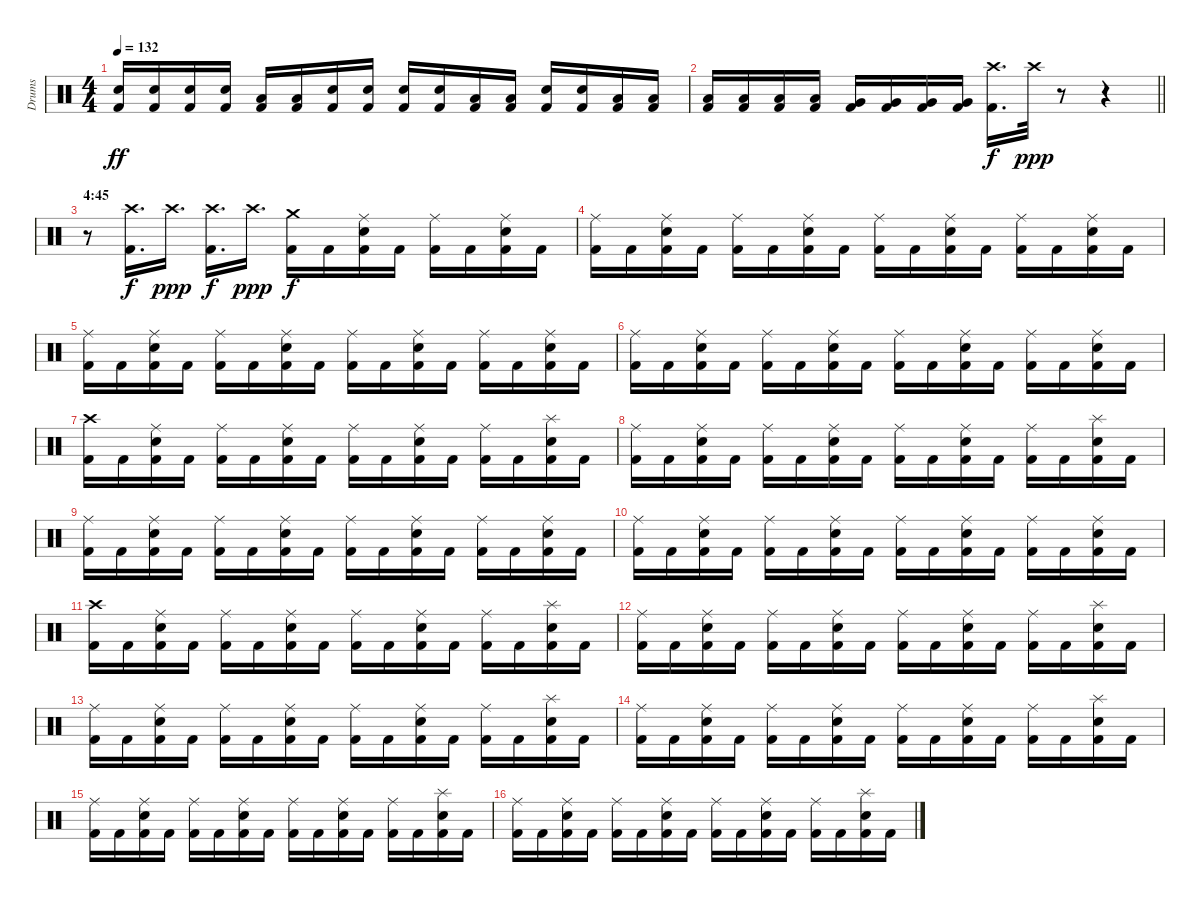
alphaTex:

\track ("Drums" "Drums") {instrument percussion}
\staff {score}
\articulation defaults
\ts (4 4)
\tempo 132
\clef neutral
\ks c
("Snare (hit) 2" "Kick (hit) 2").16{dy ff} ("Snare (hit) 2" "Kick (hit) 2").16 ("Snare (hit) 2" "Kick (hit) 2").16 ("Snare (hit) 2" "Kick (hit) 2").16 ("Low Tom (hit)" "Kick (hit) 2").16 ("Low Tom (hit)" "Kick (hit) 2").16 ("Snare (hit) 2" "Kick (hit) 2").16 ("Snare (hit) 2" "Kick (hit) 2").16 ("Snare (hit) 2" "Kick (hit) 2").16 ("Snare (hit) 2" "Kick (hit) 2").16 ("Low Tom (hit)" "Kick (hit) 2").16 ("Low Tom (hit)" "Kick (hit) 2").16 ("Snare (hit) 2" "Kick (hit) 2").16 ("Snare (hit) 2" "Kick (hit) 2").16 ("Low Tom (hit)" "Kick (hit) 2").16 ("Low Tom (hit)" "Kick (hit) 2").16 |
\barLineRight lightlight
("Low Tom (hit)" "Kick (hit) 2").16 ("Low Tom (hit)" "Kick (hit) 2").16 ("Low Tom (hit)" "Kick (hit) 2").16 ("Low Tom (hit)" "Kick (hit) 2").16 ("Very Low Tom (hit)" "Kick (hit) 2").16 ("Very Low Tom (hit)" "Kick (hit) 2").16 ("Very Low Tom (hit)" "Kick (hit) 2").16 ("Very Low Tom (hit)" "Kick (hit) 2").16 ("Crash high (hit)" "Kick (hit) 2").16{d dy f} "Crash high (hit)".32{dy ppp} r.8 r.4 |
\section ("" "4:45")
r.8 ("Crash high (hit)" "Kick (hit) 2").16{d dy f} "Crash high (hit)".16{d dy ppp} ("Crash high (hit)" "Kick (hit) 2").16{d dy f} "Crash high (hit)".16{d dy ppp} ("Crash medium (hit)" "Kick (hit) 2").16{dy f} "Kick (hit) 2".16 ("Ride (middle)" "Snare (hit) 2" "Kick (hit) 2").16 "Kick (hit) 2".16 ("Ride (middle)" "Kick (hit) 2").16 "Kick (hit) 2".16 ("Ride (middle)" "Snare (hit) 2" "Kick (hit) 2").16 "Kick (hit) 2".16 |
("Ride (middle)" "Kick (hit) 2").16 "Kick (hit) 2".16 ("Ride (middle)" "Snare (hit) 2" "Kick (hit) 2").16 "Kick (hit) 2".16 ("Ride (middle)" "Kick (hit) 2").16 "Kick (hit) 2".16 ("Ride (middle)" "Snare (hit) 2" "Kick (hit) 2").16 "Kick (hit) 2".16 ("Ride (middle)" "Kick (hit) 2").16 "Kick (hit) 2".16 ("Ride (middle)" "Snare (hit) 2" "Kick (hit) 2").16 "Kick (hit) 2".16 ("Ride (middle)" "Kick (hit) 2").16 "Kick (hit) 2".16 ("Ride (middle)" "Snare (hit) 2" "Kick (hit) 2").16 "Kick (hit) 2".16 |
("Ride (middle)" "Kick (hit) 2").16 "Kick (hit) 2".16 ("Ride (middle)" "Snare (hit) 2" "Kick (hit) 2").16 "Kick (hit) 2".16 ("Ride (middle)" "Kick (hit) 2").16 "Kick (hit) 2".16 ("Ride (middle)" "Snare (hit) 2" "Kick (hit) 2").16 "Kick (hit) 2".16 ("Ride (middle)" "Kick (hit) 2").16 "Kick (hit) 2".16 ("Ride (middle)" "Snare (hit) 2" "Kick (hit) 2").16 "Kick (hit) 2".16 ("Ride (middle)" "Kick (hit) 2").16 "Kick (hit) 2".16 ("Ride (middle)" "Snare (hit) 2" "Kick (hit) 2").16 "Kick (hit) 2".16 |
("Ride (middle)" "Kick (hit) 2").16 "Kick (hit) 2".16 ("Ride (middle)" "Snare (hit) 2" "Kick (hit) 2").16 "Kick (hit) 2".16 ("Ride (middle)" "Kick (hit) 2").16 "Kick (hit) 2".16 ("Ride (middle)" "Snare (hit) 2" "Kick (hit) 2").16 "Kick (hit) 2".16 ("Ride (middle)" "Kick (hit) 2").16 "Kick (hit) 2".16 ("Ride (middle)" "Snare (hit) 2" "Kick (hit) 2").16 "Kick (hit) 2".16 ("Ride (middle)" "Kick (hit) 2").16 "Kick (hit) 2".16 ("Ride (middle)" "Snare (hit) 2" "Kick (hit) 2").16 "Kick (hit) 2".16 |
("Crash high (hit)" "Kick (hit) 2").16 "Kick (hit) 2".16 ("Ride (middle)" "Snare (hit) 2" "Kick (hit) 2").16 "Kick (hit) 2".16 ("Ride (middle)" "Kick (hit) 2").16 "Kick (hit) 2".16 ("Ride (middle)" "Snare (hit) 2" "Kick (hit) 2").16 "Kick (hit) 2".16 ("Ride (middle)" "Kick (hit) 2").16 "Kick (hit) 2".16 ("Ride (middle)" "Snare (hit) 2" "Kick (hit) 2").16 "Kick (hit) 2".16 ("Ride (middle)" "Kick (hit) 2").16 "Kick (hit) 2".16 ("Splash (hit)" "Snare (hit) 2" "Kick (hit) 2").16 "Kick (hit) 2".16 |
("Ride (middle)" "Kick (hit) 2").16 "Kick (hit) 2".16 ("Ride (middle)" "Snare (hit) 2" "Kick (hit) 2").16 "Kick (hit) 2".16 ("Ride (middle)" "Kick (hit) 2").16 "Kick (hit) 2".16 ("Ride (middle)" "Snare (hit) 2" "Kick (hit) 2").16 "Kick (hit) 2".16 ("Ride (middle)" "Kick (hit) 2").16 "Kick (hit) 2".16 ("Ride (middle)" "Snare (hit) 2" "Kick (hit) 2").16 "Kick (hit) 2".16 ("Ride (middle)" "Kick (hit) 2").16 "Kick (hit) 2".16 ("Splash (hit)" "Snare (hit) 2" "Kick (hit) 2").16 "Kick (hit) 2".16 |
("Ride (middle)" "Kick (hit) 2").16 "Kick (hit) 2".16 ("Ride (middle)" "Snare (hit) 2" "Kick (hit) 2").16 "Kick (hit) 2".16 ("Ride (middle)" "Kick (hit) 2").16 "Kick (hit) 2".16 ("Ride (middle)" "Snare (hit) 2" "Kick (hit) 2").16 "Kick (hit) 2".16 ("Ride (middle)" "Kick (hit) 2").16 "Kick (hit) 2".16 ("Ride (middle)" "Snare (hit) 2" "Kick (hit) 2").16 "Kick (hit) 2".16 ("Ride (middle)" "Kick (hit) 2").16 "Kick (hit) 2".16 ("Ride (middle)" "Snare (hit) 2" "Kick (hit) 2").16 "Kick (hit) 2".16 |
("Ride (middle)" "Kick (hit) 2").16 "Kick (hit) 2".16 ("Ride (middle)" "Snare (hit) 2" "Kick (hit) 2").16 "Kick (hit) 2".16 ("Ride (middle)" "Kick (hit) 2").16 "Kick (hit) 2".16 ("Ride (middle)" "Snare (hit) 2" "Kick (hit) 2").16 "Kick (hit) 2".16 ("Ride (middle)" "Kick (hit) 2").16 "Kick (hit) 2".16 ("Ride (middle)" "Snare (hit) 2" "Kick (hit) 2").16 "Kick (hit) 2".16 ("Ride (middle)" "Kick (hit) 2").16 "Kick (hit) 2".16 ("Ride (middle)" "Snare (hit) 2" "Kick (hit) 2").16 "Kick (hit) 2".16 |
("Crash high (hit)" "Kick (hit) 2").16 "Kick (hit) 2".16 ("Ride (middle)" "Snare (hit) 2" "Kick (hit) 2").16 "Kick (hit) 2".16 ("Ride (middle)" "Kick (hit) 2").16 "Kick (hit) 2".16 ("Ride (middle)" "Snare (hit) 2" "Kick (hit) 2").16 "Kick (hit) 2".16 ("Ride (middle)" "Kick (hit) 2").16 "Kick (hit) 2".16 ("Ride (middle)" "Snare (hit) 2" "Kick (hit) 2").16 "Kick (hit) 2".16 ("Ride (middle)" "Kick (hit) 2").16 "Kick (hit) 2".16 ("Splash (hit)" "Snare (hit) 2" "Kick (hit) 2").16 "Kick (hit) 2".16 |
("Ride (middle)" "Kick (hit) 2").16 "Kick (hit) 2".16 ("Ride (middle)" "Snare (hit) 2" "Kick (hit) 2").16 "Kick (hit) 2".16 ("Ride (middle)" "Kick (hit) 2").16 "Kick (hit) 2".16 ("Ride (middle)" "Snare (hit) 2" "Kick (hit) 2").16 "Kick (hit) 2".16 ("Ride (middle)" "Kick (hit) 2").16 "Kick (hit) 2".16 ("Ride (middle)" "Snare (hit) 2" "Kick (hit) 2").16 "Kick (hit) 2".16 ("Ride (middle)" "Kick (hit) 2").16 "Kick (hit) 2".16 ("Splash (hit)" "Snare (hit) 2" "Kick (hit) 2").16 "Kick (hit) 2".16 |
("Ride (middle)" "Kick (hit) 2").16 "Kick (hit) 2".16 ("Ride (middle)" "Snare (hit) 2" "Kick (hit) 2").16 "Kick (hit) 2".16 ("Ride (middle)" "Kick (hit) 2").16 "Kick (hit) 2".16 ("Ride (middle)" "Snare (hit) 2" "Kick (hit) 2").16 "Kick (hit) 2".16 ("Ride (middle)" "Kick (hit) 2").16 "Kick (hit) 2".16 ("Ride (middle)" "Snare (hit) 2" "Kick (hit) 2").16 "Kick (hit) 2".16 ("Ride (middle)" "Kick (hit) 2").16 "Kick (hit) 2".16 ("Splash (hit)" "Snare (hit) 2" "Kick (hit) 2").16 "Kick (hit) 2".16 |
("Ride (middle)" "Kick (hit) 2").16 "Kick (hit) 2".16 ("Ride (middle)" "Snare (hit) 2" "Kick (hit) 2").16 "Kick (hit) 2".16 ("Ride (middle)" "Kick (hit) 2").16 "Kick (hit) 2".16 ("Ride (middle)" "Snare (hit) 2" "Kick (hit) 2").16 "Kick (hit) 2".16 ("Ride (middle)" "Kick (hit) 2").16 "Kick (hit) 2".16 ("Ride (middle)" "Snare (hit) 2" "Kick (hit) 2").16 "Kick (hit) 2".16 ("Ride (middle)" "Kick (hit) 2").16 "Kick (hit) 2".16 ("Splash (hit)" "Snare (hit) 2" "Kick (hit) 2").16 "Kick (hit) 2".16 |
("Ride (middle)" "Kick (hit) 2").16 "Kick (hit) 2".16 ("Ride (middle)" "Snare (hit) 2" "Kick (hit) 2").16 "Kick (hit) 2".16 ("Ride (middle)" "Kick (hit) 2").16 "Kick (hit) 2".16 ("Ride (middle)" "Snare (hit) 2" "Kick (hit) 2").16 "Kick (hit) 2".16 ("Ride (middle)" "Kick (hit) 2").16 "Kick (hit) 2".16 ("Ride (middle)" "Snare (hit) 2" "Kick (hit) 2").16 "Kick (hit) 2".16 ("Ride (middle)" "Kick (hit) 2").16 "Kick (hit) 2".16 ("Splash (hit)" "Snare (hit) 2" "Kick (hit) 2").16 "Kick (hit) 2".16 |
("Ride (middle)" "Kick (hit) 2").16 "Kick (hit) 2".16 ("Ride (middle)" "Snare (hit) 2" "Kick (hit) 2").16 "Kick (hit) 2".16 ("Ride (middle)" "Kick (hit) 2").16 "Kick (hit) 2".16 ("Ride (middle)" "Snare (hit) 2" "Kick (hit) 2").16 "Kick (hit) 2".16 ("Ride (middle)" "Kick (hit) 2").16 "Kick (hit) 2".16 ("Ride (middle)" "Snare (hit) 2" "Kick (hit) 2").16 "Kick (hit) 2".16 ("Ride (middle)" "Kick (hit) 2").16 "Kick (hit) 2".16 ("Splash (hit)" "Snare (hit) 2" "Kick (hit) 2").16 "Kick (hit) 2".16
